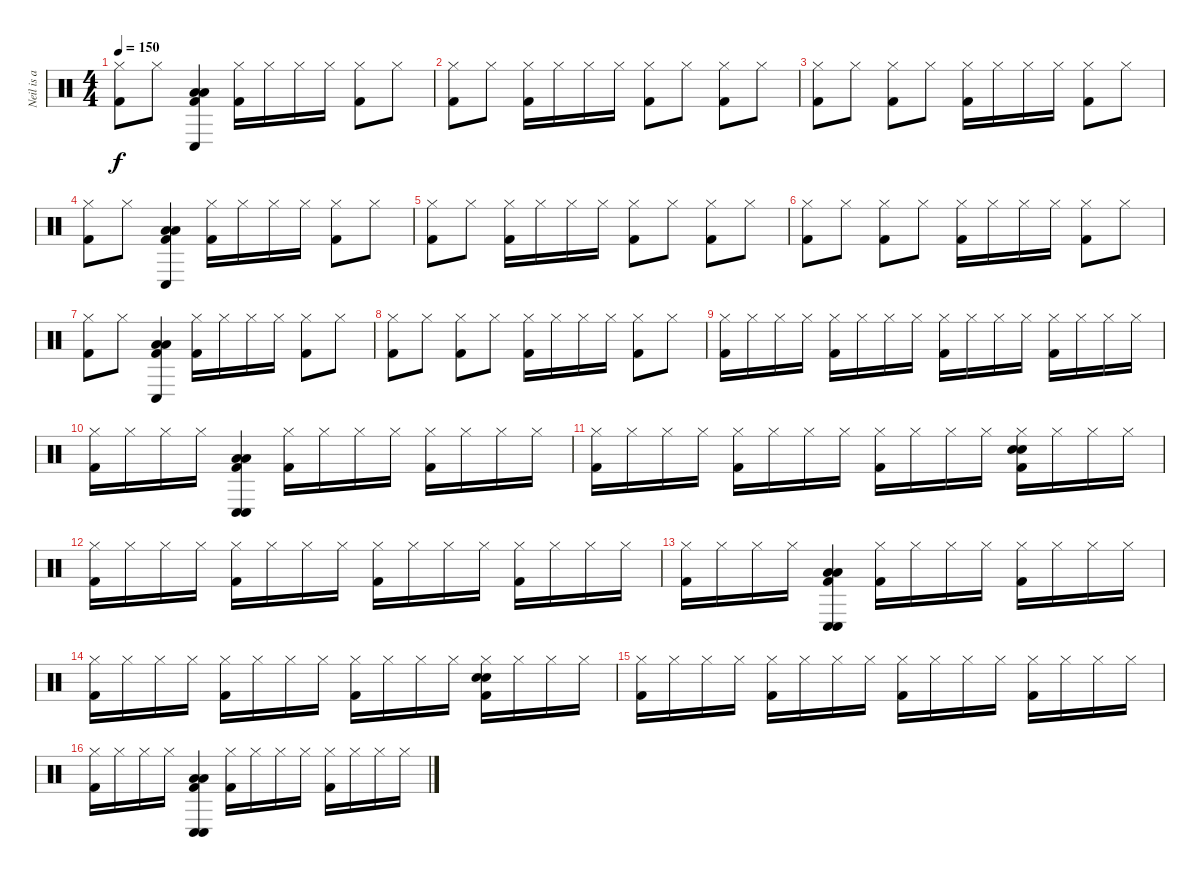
\track ("Neil is a Drum God!!!" "Neil is a ") {instrument percussion}
\staff {score}
\articulation defaults
\ts (4 4)
\tempo 150
\clef neutral
\ks c
("Hi-Hat (closed)" "Kick (hit) 2").8{dy f} "Hi-Hat (closed)".8 ("Low Tom (hit)" "Low Tom (hit)" "Conga low (hit)" "Kick (hit) 2").4 ("Hi-Hat (closed)" "Kick (hit) 2").16 "Hi-Hat (closed)".16 "Hi-Hat (closed)".16 "Hi-Hat (closed)".16 ("Hi-Hat (closed)" "Kick (hit) 2").8 "Hi-Hat (closed)".8 |
("Hi-Hat (closed)" "Kick (hit) 2").8 "Hi-Hat (closed)".8 ("Hi-Hat (closed)" "Kick (hit) 2").16 "Hi-Hat (closed)".16 "Hi-Hat (closed)".16 "Hi-Hat (closed)".16 ("Hi-Hat (closed)" "Kick (hit) 2").8 "Hi-Hat (closed)".8 ("Hi-Hat (closed)" "Kick (hit) 2").8 "Hi-Hat (closed)".8 |
("Hi-Hat (closed)" "Kick (hit) 2").8 "Hi-Hat (closed)".8 ("Hi-Hat (closed)" "Kick (hit) 2").8 "Hi-Hat (closed)".8 ("Hi-Hat (closed)" "Kick (hit) 2").16 "Hi-Hat (closed)".16 "Hi-Hat (closed)".16 "Hi-Hat (closed)".16 ("Hi-Hat (closed)" "Kick (hit) 2").8 "Hi-Hat (closed)".8 |
("Hi-Hat (closed)" "Kick (hit) 2").8 "Hi-Hat (closed)".8 ("Low Tom (hit)" "Low Tom (hit)" "Conga low (hit)" "Kick (hit) 2").4 ("Hi-Hat (closed)" "Kick (hit) 2").16 "Hi-Hat (closed)".16 "Hi-Hat (closed)".16 "Hi-Hat (closed)".16 ("Hi-Hat (closed)" "Kick (hit) 2").8 "Hi-Hat (closed)".8 |
("Hi-Hat (closed)" "Kick (hit) 2").8 "Hi-Hat (closed)".8 ("Hi-Hat (closed)" "Kick (hit) 2").16 "Hi-Hat (closed)".16 "Hi-Hat (closed)".16 "Hi-Hat (closed)".16 ("Hi-Hat (closed)" "Kick (hit) 2").8 "Hi-Hat (closed)".8 ("Hi-Hat (closed)" "Kick (hit) 2").8 "Hi-Hat (closed)".8 |
("Hi-Hat (closed)" "Kick (hit) 2").8 "Hi-Hat (closed)".8 ("Hi-Hat (closed)" "Kick (hit) 2").8 "Hi-Hat (closed)".8 ("Hi-Hat (closed)" "Kick (hit) 2").16 "Hi-Hat (closed)".16 "Hi-Hat (closed)".16 "Hi-Hat (closed)".16 ("Hi-Hat (closed)" "Kick (hit) 2").8 "Hi-Hat (closed)".8 |
("Hi-Hat (closed)" "Kick (hit) 2").8 "Hi-Hat (closed)".8 ("Low Tom (hit)" "Low Tom (hit)" "Conga low (hit)" "Kick (hit) 2").4 ("Hi-Hat (closed)" "Kick (hit) 2").16 "Hi-Hat (closed)".16 "Hi-Hat (closed)".16 "Hi-Hat (closed)".16 ("Hi-Hat (closed)" "Kick (hit) 2").8 "Hi-Hat (closed)".8 |
("Hi-Hat (closed)" "Kick (hit) 2").8 "Hi-Hat (closed)".8 ("Hi-Hat (closed)" "Kick (hit) 2").8 "Hi-Hat (closed)".8 ("Hi-Hat (closed)" "Kick (hit) 2").16 "Hi-Hat (closed)".16 "Hi-Hat (closed)".16 "Hi-Hat (closed)".16 ("Hi-Hat (closed)" "Kick (hit) 2").8 "Hi-Hat (closed)".8 |
("Hi-Hat (closed)" "Kick (hit) 2").16 "Hi-Hat (closed)".16 "Hi-Hat (closed)".16 "Hi-Hat (closed)".16 ("Hi-Hat (closed)" "Kick (hit) 2").16 "Hi-Hat (closed)".16 "Hi-Hat (closed)".16 "Hi-Hat (closed)".16 ("Hi-Hat (closed)" "Kick (hit) 2").16 "Hi-Hat (closed)".16 "Hi-Hat (closed)".16 "Hi-Hat (closed)".16 ("Hi-Hat (closed)" "Kick (hit) 2").16 "Hi-Hat (closed)".16 "Hi-Hat (closed)".16 "Hi-Hat (closed)".16 |
("Hi-Hat (closed)" "Kick (hit) 2").16 "Hi-Hat (closed)".16 "Hi-Hat (closed)".16 "Hi-Hat (closed)".16 ("Conga low (hit)" "Conga low (hit)" "Low Tom (hit)" "Low Tom (hit)" "Kick (hit) 2").4 ("Hi-Hat (closed)" "Kick (hit) 2").16 "Hi-Hat (closed)".16 "Hi-Hat (closed)".16 "Hi-Hat (closed)".16 ("Hi-Hat (closed)" "Kick (hit) 2").16 "Hi-Hat (closed)".16 "Hi-Hat (closed)".16 "Hi-Hat (closed)".16 |
("Hi-Hat (closed)" "Kick (hit) 2").16 "Hi-Hat (closed)".16 "Hi-Hat (closed)".16 "Hi-Hat (closed)".16 ("Hi-Hat (closed)" "Kick (hit) 2").16 "Hi-Hat (closed)".16 "Hi-Hat (closed)".16 "Hi-Hat (closed)".16 ("Hi-Hat (closed)" "Kick (hit) 2").16 "Hi-Hat (closed)".16 "Hi-Hat (closed)".16 "Hi-Hat (closed)".16 ("Hi-Hat (closed)" "Snare (hit) 2" "Snare (hit) 2" "Kick (hit) 2").16 "Hi-Hat (closed)".16 "Hi-Hat (closed)".16 "Hi-Hat (closed)".16 |
("Hi-Hat (closed)" "Kick (hit) 2").16 "Hi-Hat (closed)".16 "Hi-Hat (closed)".16 "Hi-Hat (closed)".16 ("Hi-Hat (closed)" "Kick (hit) 2").16 "Hi-Hat (closed)".16 "Hi-Hat (closed)".16 "Hi-Hat (closed)".16 ("Hi-Hat (closed)" "Kick (hit) 2").16 "Hi-Hat (closed)".16 "Hi-Hat (closed)".16 "Hi-Hat (closed)".16 ("Hi-Hat (closed)" "Kick (hit) 2").16 "Hi-Hat (closed)".16 "Hi-Hat (closed)".16 "Hi-Hat (closed)".16 |
("Hi-Hat (closed)" "Kick (hit) 2").16 "Hi-Hat (closed)".16 "Hi-Hat (closed)".16 "Hi-Hat (closed)".16 ("Conga low (hit)" "Conga low (hit)" "Low Tom (hit)" "Low Tom (hit)" "Kick (hit) 2").4 ("Hi-Hat (closed)" "Kick (hit) 2").16 "Hi-Hat (closed)".16 "Hi-Hat (closed)".16 "Hi-Hat (closed)".16 ("Hi-Hat (closed)" "Kick (hit) 2").16 "Hi-Hat (closed)".16 "Hi-Hat (closed)".16 "Hi-Hat (closed)".16 |
("Hi-Hat (closed)" "Kick (hit) 2").16 "Hi-Hat (closed)".16 "Hi-Hat (closed)".16 "Hi-Hat (closed)".16 ("Hi-Hat (closed)" "Kick (hit) 2").16 "Hi-Hat (closed)".16 "Hi-Hat (closed)".16 "Hi-Hat (closed)".16 ("Hi-Hat (closed)" "Kick (hit) 2").16 "Hi-Hat (closed)".16 "Hi-Hat (closed)".16 "Hi-Hat (closed)".16 ("Hi-Hat (closed)" "Snare (hit) 2" "Snare (hit) 2" "Kick (hit) 2").16 "Hi-Hat (closed)".16 "Hi-Hat (closed)".16 "Hi-Hat (closed)".16 |
("Hi-Hat (closed)" "Kick (hit) 2").16 "Hi-Hat (closed)".16 "Hi-Hat (closed)".16 "Hi-Hat (closed)".16 ("Hi-Hat (closed)" "Kick (hit) 2").16 "Hi-Hat (closed)".16 "Hi-Hat (closed)".16 "Hi-Hat (closed)".16 ("Hi-Hat (closed)" "Kick (hit) 2").16 "Hi-Hat (closed)".16 "Hi-Hat (closed)".16 "Hi-Hat (closed)".16 ("Hi-Hat (closed)" "Kick (hit) 2").16 "Hi-Hat (closed)".16 "Hi-Hat (closed)".16 "Hi-Hat (closed)".16 |
("Hi-Hat (closed)" "Kick (hit) 2").16 "Hi-Hat (closed)".16 "Hi-Hat (closed)".16 "Hi-Hat (closed)".16 ("Conga low (hit)" "Conga low (hit)" "Low Tom (hit)" "Low Tom (hit)" "Kick (hit) 2").4 ("Hi-Hat (closed)" "Kick (hit) 2").16 "Hi-Hat (closed)".16 "Hi-Hat (closed)".16 "Hi-Hat (closed)".16 ("Hi-Hat (closed)" "Kick (hit) 2").16 "Hi-Hat (closed)".16 "Hi-Hat (closed)".16 "Hi-Hat (closed)".16
